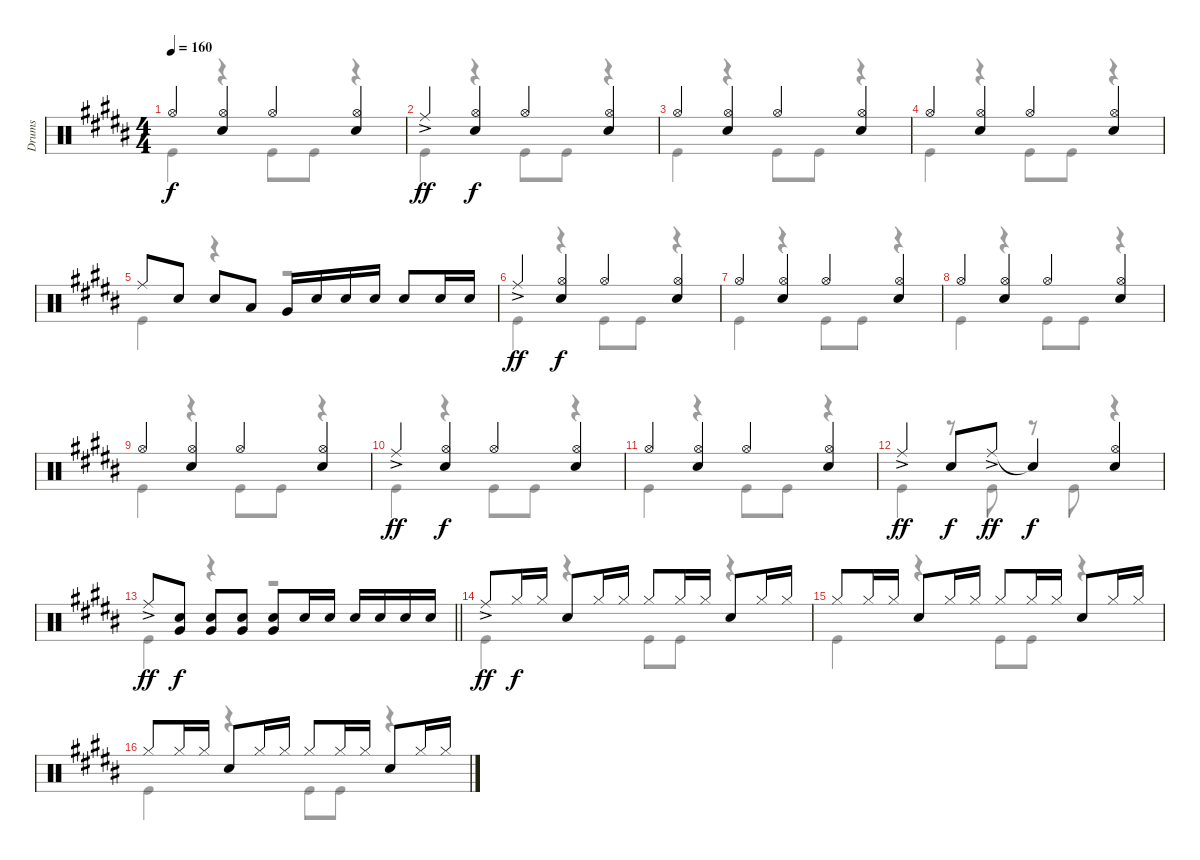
\track ("Drums" "Drums") {instrument percussion}
\staff {score}
\articulation defaults
\voice
\ts (4 4)
\tempo 160
\clef neutral
\ks b "Hi-Hat (open)".4{dy f}
("Hi-Hat (open)" "Snare (hit) 2").4 "Hi-Hat (open)".4 ("Hi-Hat (open)" "Snare (hit) 2").4 |
"Ride (middle)"{ac}.4{dy ff} ("Hi-Hat (open)" "Snare (hit) 2").4{dy f} "Hi-Hat (open)".4 ("Hi-Hat (open)" "Snare (hit) 2").4 |
"Hi-Hat (open)".4 ("Hi-Hat (open)" "Snare (hit) 2").4 "Hi-Hat (open)".4 ("Hi-Hat (open)" "Snare (hit) 2").4 |
"Hi-Hat (open)".4 ("Hi-Hat (open)" "Snare (hit) 2").4 "Hi-Hat (open)".4 ("Hi-Hat (open)" "Snare (hit) 2").4 |
"Ride (middle)".8 "Snare (hit) 2".8 "Snare (hit) 2".8 "Low Tom (hit)".8 "Very Low Tom (hit)".16 "Snare (hit) 2".16 "Snare (hit) 2".16 "Snare (hit) 2".16 "Snare (hit) 2".8 "Snare (hit) 2".16 "Snare (hit) 2".16 |
"Ride (middle)"{ac}.4{dy ff} ("Hi-Hat (open)" "Snare (hit) 2").4{dy f} "Hi-Hat (open)".4 ("Hi-Hat (open)" "Snare (hit) 2").4 |
"Hi-Hat (open)".4 ("Hi-Hat (open)" "Snare (hit) 2").4 "Hi-Hat (open)".4 ("Hi-Hat (open)" "Snare (hit) 2").4 |
"Hi-Hat (open)".4 ("Hi-Hat (open)" "Snare (hit) 2").4 "Hi-Hat (open)".4 ("Hi-Hat (open)" "Snare (hit) 2").4 |
"Hi-Hat (open)".4 ("Hi-Hat (open)" "Snare (hit) 2").4 "Hi-Hat (open)".4 ("Hi-Hat (open)" "Snare (hit) 2").4 |
"Ride (middle)"{ac}.4{dy ff} ("Hi-Hat (open)" "Snare (hit) 2").4{dy f} "Hi-Hat (open)".4 ("Hi-Hat (open)" "Snare (hit) 2").4 |
"Hi-Hat (open)".4 ("Hi-Hat (open)" "Snare (hit) 2").4 "Hi-Hat (open)".4 ("Hi-Hat (open)" "Snare (hit) 2").4 |
"Ride (middle)"{ac}.4{dy ff} "Snare (hit) 2".8{dy f} "Ride (middle)"{ac}.8{dy ff} "Snare (hit)"{t}.4{dy f} ("Hi-Hat (open)" "Snare (hit) 2").4 |
\barLineRight lightlight "Ride (middle)"{ac}.8{dy ff}
("Snare (hit) 2" "Very Low Tom (hit)").8{dy f} ("Snare (hit) 2" "Very Low Tom (hit)").8 ("Snare (hit) 2" "Very Low Tom (hit)").8 ("Snare (hit) 2" "Very Low Tom (hit)").8 "Snare (hit) 2".16 "Snare (hit) 2".16 "Snare (hit) 2".16 "Snare (hit) 2".16 "Snare (hit) 2".16 "Snare (hit) 2".16 |
"Ride (middle)"{ac}.8{dy ff} "Hi-Hat (closed)".16{dy f} "Hi-Hat (closed)".16 "Snare (hit) 2".8 "Hi-Hat (closed)".16 "Hi-Hat (closed)".16 "Hi-Hat (closed)".8 "Hi-Hat (closed)".16 "Hi-Hat (closed)".16 "Snare (hit) 2".8 "Hi-Hat (closed)".16 "Hi-Hat (closed)".16 |
"Hi-Hat (closed)".8 "Hi-Hat (closed)".16 "Hi-Hat (closed)".16 "Snare (hit) 2".8 "Hi-Hat (closed)".16 "Hi-Hat (closed)".16 "Hi-Hat (closed)".8 "Hi-Hat (closed)".16 "Hi-Hat (closed)".16 "Snare (hit) 2".8 "Hi-Hat (closed)".16 "Hi-Hat (closed)".16 |
"Hi-Hat (closed)".8 "Hi-Hat (closed)".16 "Hi-Hat (closed)".16 "Snare (hit) 2".8 "Hi-Hat (closed)".16 "Hi-Hat (closed)".16 "Hi-Hat (closed)".8 "Hi-Hat (closed)".16 "Hi-Hat (closed)".16 "Snare (hit) 2".8 "Hi-Hat (closed)".16 "Hi-Hat (closed)".16
\voice
\clef neutral
\ottava regular
\simile none
\ks b "Kick (hit)".4{dy f}
r.4 "Kick (hit)".8 "Kick (hit)".8 r.4 |
"Kick (hit)".4 r.4 "Kick (hit)".8 "Kick (hit)".8 r.4 |
"Kick (hit)".4 r.4 "Kick (hit)".8 "Kick (hit)".8 r.4 |
"Kick (hit)".4 r.4 "Kick (hit)".8 "Kick (hit)".8 r.4 |
"Kick (hit)".4 r.4 r.2 |
"Kick (hit)".4 r.4 "Kick (hit)".8 "Kick (hit)".8 r.4 |
"Kick (hit)".4 r.4 "Kick (hit)".8 "Kick (hit)".8 r.4 |
"Kick (hit)".4 r.4 "Kick (hit)".8 "Kick (hit)".8 r.4 |
"Kick (hit)".4 r.4 "Kick (hit)".8 "Kick (hit)".8 r.4 |
"Kick (hit)".4 r.4 "Kick (hit)".8 "Kick (hit)".8 r.4 |
"Kick (hit)".4 r.4 "Kick (hit)".8 "Kick (hit)".8 r.4 |
"Kick (hit)".4 r.8 "Kick (hit)".8 r.8 "Kick (hit)".8 r.4 |
\barLineRight lightlight "Kick (hit)".4
r.4 r.2 |
"Kick (hit)".4 r.4 "Kick (hit)".8 "Kick (hit)".8 r.4 |
"Kick (hit)".4 r.4 "Kick (hit)".8 "Kick (hit)".8 r.4 |
"Kick (hit)".4 r.4 "Kick (hit)".8 "Kick (hit)".8 r.4
